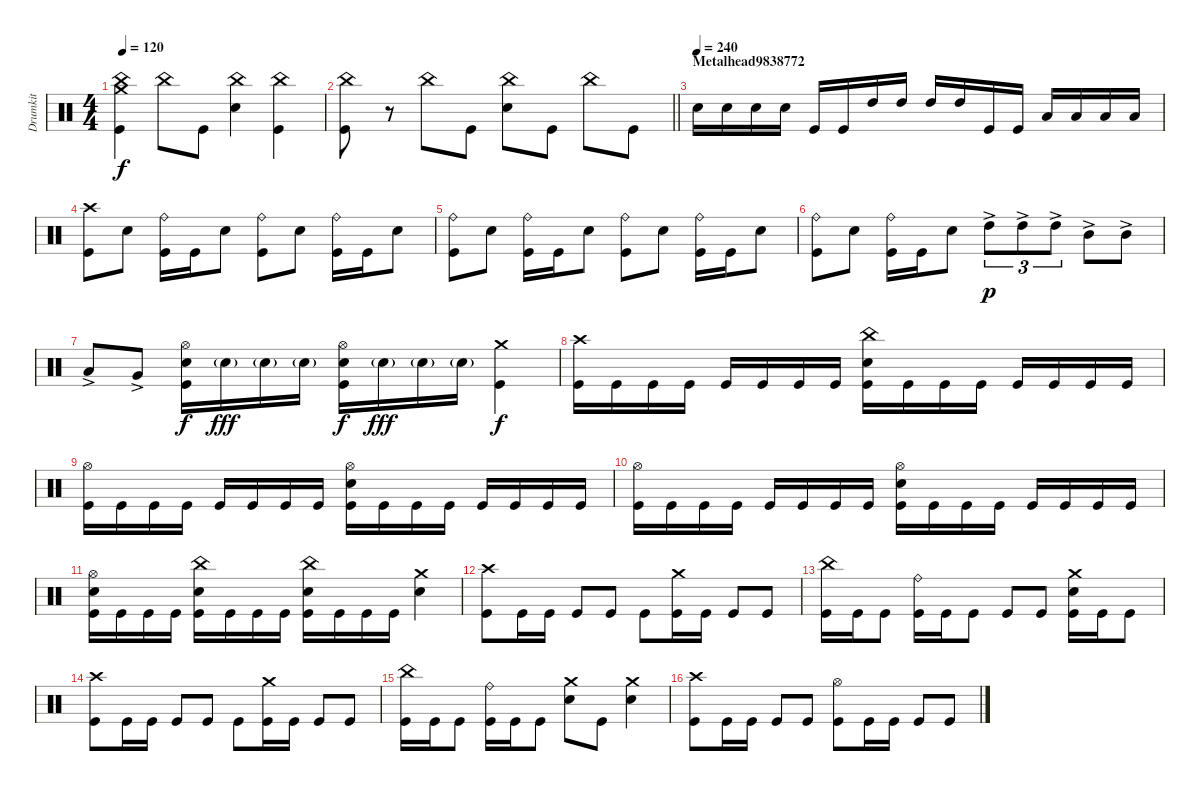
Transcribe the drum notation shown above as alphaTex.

\track ("Drumkit" "Drumkit") {instrument percussion}
\staff {score}
\articulation defaults
\ts (4 4)
\tempo 120
\clef neutral
\ks c
("Crash medium (hit)" "China (hit)" "Kick (hit)").4{dy f} "China (hit)".8 "Kick (hit)".8 ("China (hit)" "Snare (hit) 2").4 ("China (hit)" "Kick (hit)").4 |
\barLineRight lightlight
("China (hit)" "Kick (hit)").8 r.8 "China (hit)".8 "Kick (hit)".8 ("China (hit)" "Snare (hit) 2").8 "Kick (hit)".8 "China (hit)".8 "Kick (hit)".8 |
\section ("" "Metalhead9838772")
\tempo (240)
"Snare (hit) 2".16 "Snare (hit) 2".16 "Snare (hit) 2".16 "Snare (hit) 2".16 "Kick (hit)".16 "Kick (hit)".16 "High Tom (hit)".16 "High Tom (hit)".16 "High Tom (hit)".16 "High Tom (hit)".16 "Kick (hit)".16 "Kick (hit)".16 "Low Tom (hit)".16 "Low Tom (hit)".16 "Low Tom (hit)".16 "Low Tom (hit)".16 |
("Crash high (hit)" "Kick (hit)").8 "Snare (hit) 2".8 ("Ride (bell)" "Kick (hit)").16 "Kick (hit)".16 "Snare (hit) 2".8 ("Ride (bell)" "Kick (hit)").8 "Snare (hit) 2".8 ("Ride (bell)" "Kick (hit)").16 "Kick (hit)".16 "Snare (hit) 2".8 |
("Ride (bell)" "Kick (hit)").8 "Snare (hit) 2".8 ("Ride (bell)" "Kick (hit)").16 "Kick (hit)".16 "Snare (hit) 2".8 ("Ride (bell)" "Kick (hit)").8 "Snare (hit) 2".8 ("Ride (bell)" "Kick (hit)").16 "Kick (hit)".16 "Snare (hit) 2".8 |
("Ride (bell)" "Kick (hit)").8 "Snare (hit) 2".8 ("Ride (bell)" "Kick (hit)").16 "Kick (hit)".16 "Snare (hit) 2".8 "High Tom (hit)"{ac}.8{tu (3 2) dy p} "High Tom (hit)"{ac}.8{tu (3 2)} "High Tom (hit)"{ac}.8{tu (3 2)} "Mid Tom (hit)"{ac}.8 "Mid Tom (hit)"{ac}.8 |
"Low Tom (hit)"{ac}.8 "Very Low Tom (hit)"{ac}.8 ("Hi-Hat (open)" "Snare (hit) 2" "Kick (hit)").16{dy f} "Snare (hit) 2"{g}.16{dy fff} "Snare (hit) 2"{g}.16 "Snare (hit) 2"{g}.16 ("Hi-Hat (open)" "Snare (hit) 2" "Kick (hit)").16{dy f} "Snare (hit) 2"{g}.16{dy fff} "Snare (hit) 2"{g}.16 "Snare (hit) 2"{g}.16 ("Crash medium (hit)" "Kick (hit)").4{dy f} |
("Crash high (hit)" "Kick (hit)").16 "Kick (hit)".16 "Kick (hit)".16 "Kick (hit)".16 "Kick (hit)".16 "Kick (hit)".16 "Kick (hit)".16 "Kick (hit)".16 ("China (hit)" "Snare (hit) 2" "Kick (hit)").16 "Kick (hit)".16 "Kick (hit)".16 "Kick (hit)".16 "Kick (hit)".16 "Kick (hit)".16 "Kick (hit)".16 "Kick (hit)".16 |
("Hi-Hat (open)" "Kick (hit)").16 "Kick (hit)".16 "Kick (hit)".16 "Kick (hit)".16 "Kick (hit)".16 "Kick (hit)".16 "Kick (hit)".16 "Kick (hit)".16 ("Hi-Hat (open)" "Snare (hit) 2" "Kick (hit)").16 "Kick (hit)".16 "Kick (hit)".16 "Kick (hit)".16 "Kick (hit)".16 "Kick (hit)".16 "Kick (hit)".16 "Kick (hit)".16 |
("Hi-Hat (open)" "Kick (hit)").16 "Kick (hit)".16 "Kick (hit)".16 "Kick (hit)".16 "Kick (hit)".16 "Kick (hit)".16 "Kick (hit)".16 "Kick (hit)".16 ("Hi-Hat (open)" "Snare (hit) 2" "Kick (hit)").16 "Kick (hit)".16 "Kick (hit)".16 "Kick (hit)".16 "Kick (hit)".16 "Kick (hit)".16 "Kick (hit)".16 "Kick (hit)".16 |
("Hi-Hat (open)" "Snare (hit) 2" "Kick (hit)").16 "Kick (hit)".16 "Kick (hit)".16 "Kick (hit)".16 ("China (hit)" "Snare (hit) 2" "Kick (hit)").16 "Kick (hit)".16 "Kick (hit)".16 "Kick (hit)".16 ("China (hit)" "Snare (hit) 2" "Kick (hit)").16 "Kick (hit)".16 "Kick (hit)".16 "Kick (hit)".16 ("Crash medium (hit)" "Snare (hit) 2").4 |
("Crash high (hit)" "Kick (hit)").8 "Kick (hit)".16 "Kick (hit)".16 "Kick (hit)".8 "Kick (hit)".8 "Kick (hit)".8 ("Crash medium (hit)" "Kick (hit)").16 "Kick (hit)".16 "Kick (hit)".8 "Kick (hit)".8 |
("China (hit)" "Kick (hit)").16 "Kick (hit)".16 "Kick (hit)".8 ("Ride (bell)" "Kick (hit)").16 "Kick (hit)".16 "Kick (hit)".8 "Kick (hit)".8 "Kick (hit)".8 ("Crash medium (hit)" "Snare (hit) 2" "Kick (hit)").16 "Kick (hit)".16 "Kick (hit)".8 |
("Crash high (hit)" "Kick (hit)").8 "Kick (hit)".16 "Kick (hit)".16 "Kick (hit)".8 "Kick (hit)".8 "Kick (hit)".8 ("Crash medium (hit)" "Kick (hit)").16 "Kick (hit)".16 "Kick (hit)".8 "Kick (hit)".8 |
("China (hit)" "Kick (hit)").16 "Kick (hit)".16 "Kick (hit)".8 ("Ride (bell)" "Kick (hit)").16 "Kick (hit)".16 "Kick (hit)".8 ("Crash medium (hit)" "Snare (hit) 2").8 "Kick (hit)".8 ("Crash medium (hit)" "Snare (hit) 2").4 |
("Crash high (hit)" "Kick (hit)").8 "Kick (hit)".16 "Kick (hit)".16 "Kick (hit)".8 "Kick (hit)".8 ("Hi-Hat (open)" "Kick (hit)").8 "Kick (hit)".16 "Kick (hit)".16 "Kick (hit)".8 "Kick (hit)".8
